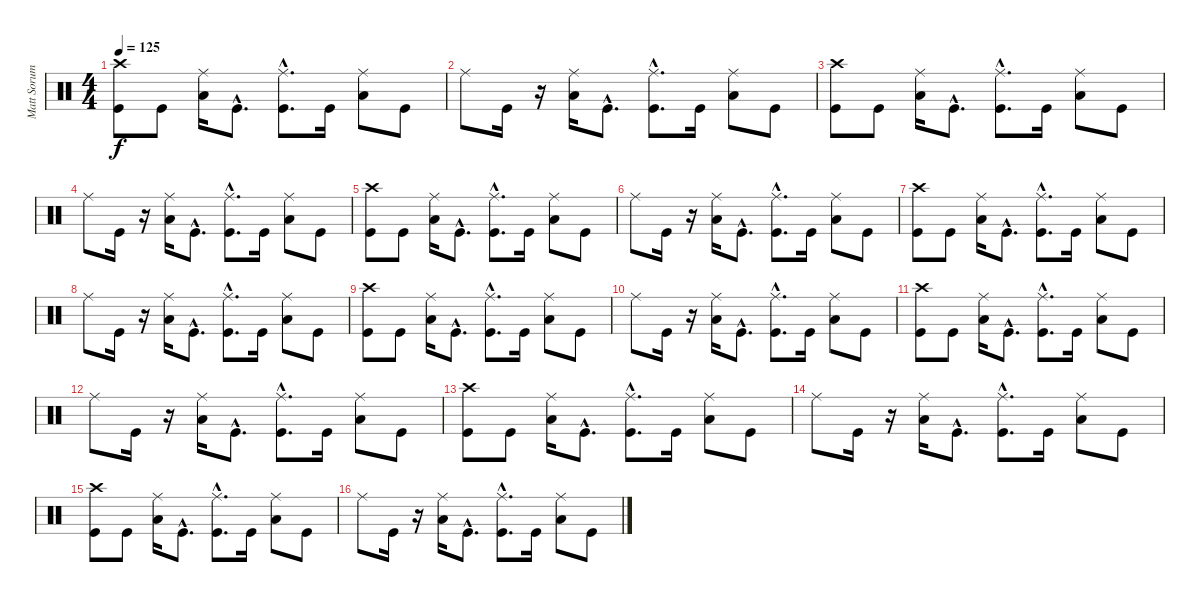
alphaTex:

\track ("Matt Sorum" "Matt Sorum") {instrument percussion}
\staff {score}
\articulation defaults
\ts (4 4)
\tempo 125
\clef neutral
\ks c
("Crash high (hit)" "Kick (hit)").8{dy f} "Kick (hit)".8 ("Low Tom (hit)" "Ride (middle)").16 "Kick (hit)"{hac}.8{d} ("Ride (middle)" "Kick (hit)"{hac}).8{d} "Kick (hit)".16 ("Low Tom (hit)" "Ride (middle)").8 "Kick (hit)".8 |
"Ride (middle)".8 "Kick (hit)".16 r.16 ("Low Tom (hit)" "Ride (middle)").16 "Kick (hit)"{hac}.8{d} ("Ride (middle)" "Kick (hit)"{hac}).8{d} "Kick (hit)".16 ("Low Tom (hit)" "Ride (middle)").8 "Kick (hit)".8 |
("Crash high (hit)" "Kick (hit)").8 "Kick (hit)".8 ("Low Tom (hit)" "Ride (middle)").16 "Kick (hit)"{hac}.8{d} ("Ride (middle)" "Kick (hit)"{hac}).8{d} "Kick (hit)".16 ("Low Tom (hit)" "Ride (middle)").8 "Kick (hit)".8 |
"Ride (middle)".8 "Kick (hit)".16 r.16 ("Low Tom (hit)" "Ride (middle)").16 "Kick (hit)"{hac}.8{d} ("Ride (middle)" "Kick (hit)"{hac}).8{d} "Kick (hit)".16 ("Low Tom (hit)" "Ride (middle)").8 "Kick (hit)".8 |
("Crash high (hit)" "Kick (hit)").8 "Kick (hit)".8 ("Low Tom (hit)" "Ride (middle)").16 "Kick (hit)"{hac}.8{d} ("Ride (middle)" "Kick (hit)"{hac}).8{d} "Kick (hit)".16 ("Low Tom (hit)" "Ride (middle)").8 "Kick (hit)".8 |
"Ride (middle)".8 "Kick (hit)".16 r.16 ("Low Tom (hit)" "Ride (middle)").16 "Kick (hit)"{hac}.8{d} ("Ride (middle)" "Kick (hit)"{hac}).8{d} "Kick (hit)".16 ("Low Tom (hit)" "Ride (middle)").8 "Kick (hit)".8 |
("Crash high (hit)" "Kick (hit)").8 "Kick (hit)".8 ("Low Tom (hit)" "Ride (middle)").16 "Kick (hit)"{hac}.8{d} ("Ride (middle)" "Kick (hit)"{hac}).8{d} "Kick (hit)".16 ("Low Tom (hit)" "Ride (middle)").8 "Kick (hit)".8 |
"Ride (middle)".8 "Kick (hit)".16 r.16 ("Low Tom (hit)" "Ride (middle)").16 "Kick (hit)"{hac}.8{d} ("Ride (middle)" "Kick (hit)"{hac}).8{d} "Kick (hit)".16 ("Low Tom (hit)" "Ride (middle)").8 "Kick (hit)".8 |
("Crash high (hit)" "Kick (hit)").8 "Kick (hit)".8 ("Low Tom (hit)" "Ride (middle)").16 "Kick (hit)"{hac}.8{d} ("Ride (middle)" "Kick (hit)"{hac}).8{d} "Kick (hit)".16 ("Low Tom (hit)" "Ride (middle)").8 "Kick (hit)".8 |
"Ride (middle)".8 "Kick (hit)".16 r.16 ("Low Tom (hit)" "Ride (middle)").16 "Kick (hit)"{hac}.8{d} ("Ride (middle)" "Kick (hit)"{hac}).8{d} "Kick (hit)".16 ("Low Tom (hit)" "Ride (middle)").8 "Kick (hit)".8 |
("Crash high (hit)" "Kick (hit)").8 "Kick (hit)".8 ("Low Tom (hit)" "Ride (middle)").16 "Kick (hit)"{hac}.8{d} ("Ride (middle)" "Kick (hit)"{hac}).8{d} "Kick (hit)".16 ("Low Tom (hit)" "Ride (middle)").8 "Kick (hit)".8 |
"Ride (middle)".8 "Kick (hit)".16 r.16 ("Low Tom (hit)" "Ride (middle)").16 "Kick (hit)"{hac}.8{d} ("Ride (middle)" "Kick (hit)"{hac}).8{d} "Kick (hit)".16 ("Low Tom (hit)" "Ride (middle)").8 "Kick (hit)".8 |
("Crash high (hit)" "Kick (hit)").8 "Kick (hit)".8 ("Low Tom (hit)" "Ride (middle)").16 "Kick (hit)"{hac}.8{d} ("Ride (middle)" "Kick (hit)"{hac}).8{d} "Kick (hit)".16 ("Low Tom (hit)" "Ride (middle)").8 "Kick (hit)".8 |
"Ride (middle)".8 "Kick (hit)".16 r.16 ("Low Tom (hit)" "Ride (middle)").16 "Kick (hit)"{hac}.8{d} ("Ride (middle)" "Kick (hit)"{hac}).8{d} "Kick (hit)".16 ("Low Tom (hit)" "Ride (middle)").8 "Kick (hit)".8 |
("Crash high (hit)" "Kick (hit)").8 "Kick (hit)".8 ("Low Tom (hit)" "Ride (middle)").16 "Kick (hit)"{hac}.8{d} ("Ride (middle)" "Kick (hit)"{hac}).8{d} "Kick (hit)".16 ("Low Tom (hit)" "Ride (middle)").8 "Kick (hit)".8 |
"Ride (middle)".8 "Kick (hit)".16 r.16 ("Low Tom (hit)" "Ride (middle)").16 "Kick (hit)"{hac}.8{d} ("Ride (middle)" "Kick (hit)"{hac}).8{d} "Kick (hit)".16 ("Low Tom (hit)" "Ride (middle)").8 "Kick (hit)".8
